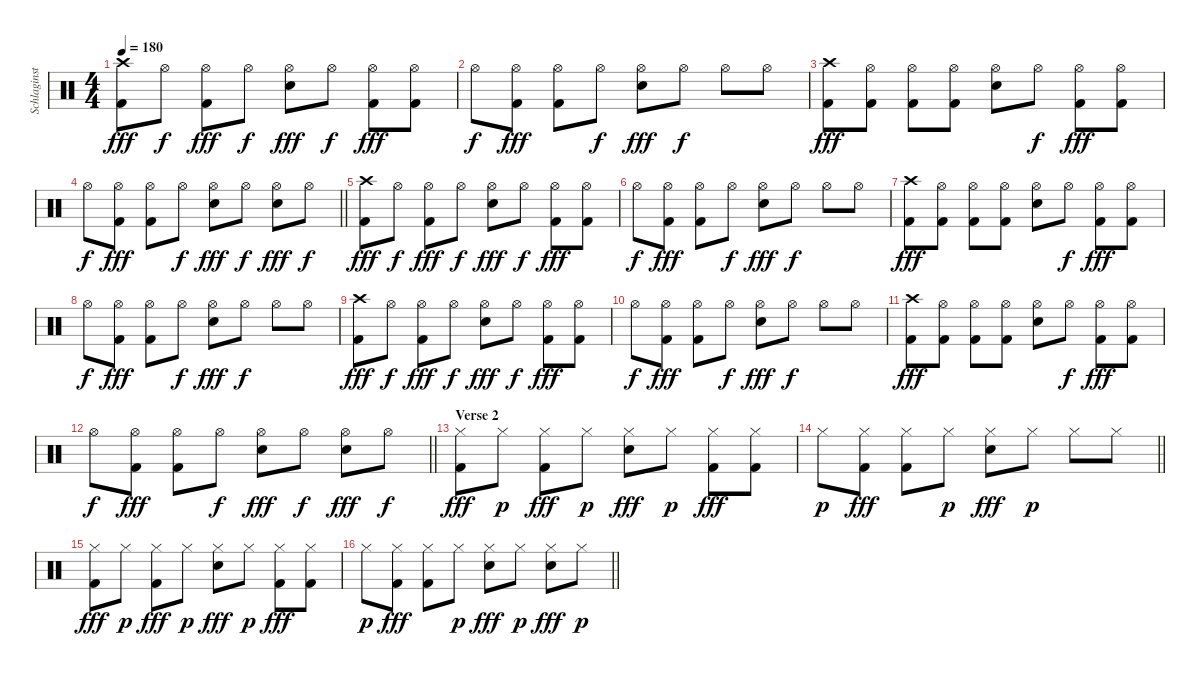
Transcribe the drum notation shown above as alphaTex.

\track ("Schlaginstrumente - Auswahl" "Schlaginst") {instrument percussion}
\staff {score}
\articulation defaults
\ts (4 4)
\tempo 180
\clef neutral
\ks c
("Crash high (hit)" "Kick (hit) 2").8{dy fff} "Hi-Hat (open)".8{dy f} ("Hi-Hat (open)" "Kick (hit) 2").8{dy fff} "Hi-Hat (open)".8{dy f} ("Hi-Hat (open)" "Snare (hit) 2").8{dy fff} "Hi-Hat (open)".8{dy f} ("Hi-Hat (open)" "Kick (hit) 2").8{dy fff} ("Hi-Hat (open)" "Kick (hit) 2").8 |
"Hi-Hat (open)".8{dy f} ("Hi-Hat (open)" "Kick (hit) 2").8{dy fff} ("Hi-Hat (open)" "Kick (hit) 2").8 "Hi-Hat (open)".8{dy f} ("Hi-Hat (open)" "Snare (hit) 2").8{dy fff} "Hi-Hat (open)".8{dy f} "Hi-Hat (open)".8 "Hi-Hat (open)".8 |
("Crash high (hit)" "Kick (hit) 2").8{dy fff} ("Hi-Hat (open)" "Kick (hit) 2").8 ("Hi-Hat (open)" "Kick (hit) 2").8 ("Hi-Hat (open)" "Kick (hit) 2").8 ("Hi-Hat (open)" "Snare (hit) 2").8 "Hi-Hat (open)".8{dy f} ("Hi-Hat (open)" "Kick (hit) 2").8{dy fff} ("Hi-Hat (open)" "Kick (hit) 2").8 |
\barLineRight lightlight "Hi-Hat (open)".8{dy f}
("Hi-Hat (open)" "Kick (hit) 2").8{dy fff} ("Hi-Hat (open)" "Kick (hit) 2").8 "Hi-Hat (open)".8{dy f} ("Hi-Hat (open)" "Snare (hit) 2").8{dy fff} "Hi-Hat (open)".8{dy f} ("Hi-Hat (open)" "Snare (hit) 2").8{dy fff} "Hi-Hat (open)".8{dy f} |
("Crash high (hit)" "Kick (hit) 2").8{dy fff} "Hi-Hat (open)".8{dy f} ("Hi-Hat (open)" "Kick (hit) 2").8{dy fff} "Hi-Hat (open)".8{dy f} ("Hi-Hat (open)" "Snare (hit) 2").8{dy fff} "Hi-Hat (open)".8{dy f} ("Hi-Hat (open)" "Kick (hit) 2").8{dy fff} ("Hi-Hat (open)" "Kick (hit) 2").8 |
"Hi-Hat (open)".8{dy f} ("Hi-Hat (open)" "Kick (hit) 2").8{dy fff} ("Hi-Hat (open)" "Kick (hit) 2").8 "Hi-Hat (open)".8{dy f} ("Hi-Hat (open)" "Snare (hit) 2").8{dy fff} "Hi-Hat (open)".8{dy f} "Hi-Hat (open)".8 "Hi-Hat (open)".8 |
("Crash high (hit)" "Kick (hit) 2").8{dy fff} ("Hi-Hat (open)" "Kick (hit) 2").8 ("Hi-Hat (open)" "Kick (hit) 2").8 ("Hi-Hat (open)" "Kick (hit) 2").8 ("Hi-Hat (open)" "Snare (hit) 2").8 "Hi-Hat (open)".8{dy f} ("Hi-Hat (open)" "Kick (hit) 2").8{dy fff} ("Hi-Hat (open)" "Kick (hit) 2").8 |
"Hi-Hat (open)".8{dy f} ("Hi-Hat (open)" "Kick (hit) 2").8{dy fff} ("Hi-Hat (open)" "Kick (hit) 2").8 "Hi-Hat (open)".8{dy f} ("Hi-Hat (open)" "Snare (hit) 2").8{dy fff} "Hi-Hat (open)".8{dy f} "Hi-Hat (open)".8 "Hi-Hat (open)".8 |
("Crash high (hit)" "Kick (hit) 2").8{dy fff} "Hi-Hat (open)".8{dy f} ("Hi-Hat (open)" "Kick (hit) 2").8{dy fff} "Hi-Hat (open)".8{dy f} ("Hi-Hat (open)" "Snare (hit) 2").8{dy fff} "Hi-Hat (open)".8{dy f} ("Hi-Hat (open)" "Kick (hit) 2").8{dy fff} ("Hi-Hat (open)" "Kick (hit) 2").8 |
"Hi-Hat (open)".8{dy f} ("Hi-Hat (open)" "Kick (hit) 2").8{dy fff} ("Hi-Hat (open)" "Kick (hit) 2").8 "Hi-Hat (open)".8{dy f} ("Hi-Hat (open)" "Snare (hit) 2").8{dy fff} "Hi-Hat (open)".8{dy f} "Hi-Hat (open)".8 "Hi-Hat (open)".8 |
("Crash high (hit)" "Kick (hit) 2").8{dy fff} ("Hi-Hat (open)" "Kick (hit) 2").8 ("Hi-Hat (open)" "Kick (hit) 2").8 ("Hi-Hat (open)" "Kick (hit) 2").8 ("Hi-Hat (open)" "Snare (hit) 2").8 "Hi-Hat (open)".8{dy f} ("Hi-Hat (open)" "Kick (hit) 2").8{dy fff} ("Hi-Hat (open)" "Kick (hit) 2").8 |
\barLineRight lightlight "Hi-Hat (open)".8{dy f}
("Hi-Hat (open)" "Kick (hit) 2").8{dy fff} ("Hi-Hat (open)" "Kick (hit) 2").8 "Hi-Hat (open)".8{dy f} ("Hi-Hat (open)" "Snare (hit) 2").8{dy fff} "Hi-Hat (open)".8{dy f} ("Hi-Hat (open)" "Snare (hit) 2").8{dy fff} "Hi-Hat (open)".8{dy f} |
\section ("" "Verse 2")
("Hi-Hat (closed)" "Kick (hit) 2").8{dy fff} "Hi-Hat (closed)".8{dy p} ("Hi-Hat (closed)" "Kick (hit) 2").8{dy fff} "Hi-Hat (closed)".8{dy p} ("Hi-Hat (closed)" "Snare (hit) 2").8{dy fff} "Hi-Hat (closed)".8{dy p} ("Hi-Hat (closed)" "Kick (hit) 2").8{dy fff} ("Hi-Hat (closed)" "Kick (hit) 2").8 |
\barLineRight lightlight "Hi-Hat (closed)".8{dy p}
("Hi-Hat (closed)" "Kick (hit) 2").8{dy fff} ("Hi-Hat (closed)" "Kick (hit) 2").8 "Hi-Hat (closed)".8{dy p} ("Hi-Hat (closed)" "Snare (hit) 2").8{dy fff} "Hi-Hat (closed)".8{dy p} "Hi-Hat (closed)".8 "Hi-Hat (closed)".8 |
("Hi-Hat (closed)" "Kick (hit) 2").8{dy fff} "Hi-Hat (closed)".8{dy p} ("Hi-Hat (closed)" "Kick (hit) 2").8{dy fff} "Hi-Hat (closed)".8{dy p} ("Hi-Hat (closed)" "Snare (hit) 2").8{dy fff} "Hi-Hat (closed)".8{dy p} ("Hi-Hat (closed)" "Kick (hit) 2").8{dy fff} ("Hi-Hat (closed)" "Kick (hit) 2").8 |
\barLineRight lightlight "Hi-Hat (closed)".8{dy p}
("Hi-Hat (closed)" "Kick (hit) 2").8{dy fff} ("Hi-Hat (closed)" "Kick (hit) 2").8 "Hi-Hat (closed)".8{dy p} ("Hi-Hat (closed)" "Snare (hit) 2").8{dy fff} "Hi-Hat (closed)".8{dy p} ("Hi-Hat (closed)" "Snare (hit) 2").8{dy fff} "Hi-Hat (closed)".8{dy p}
